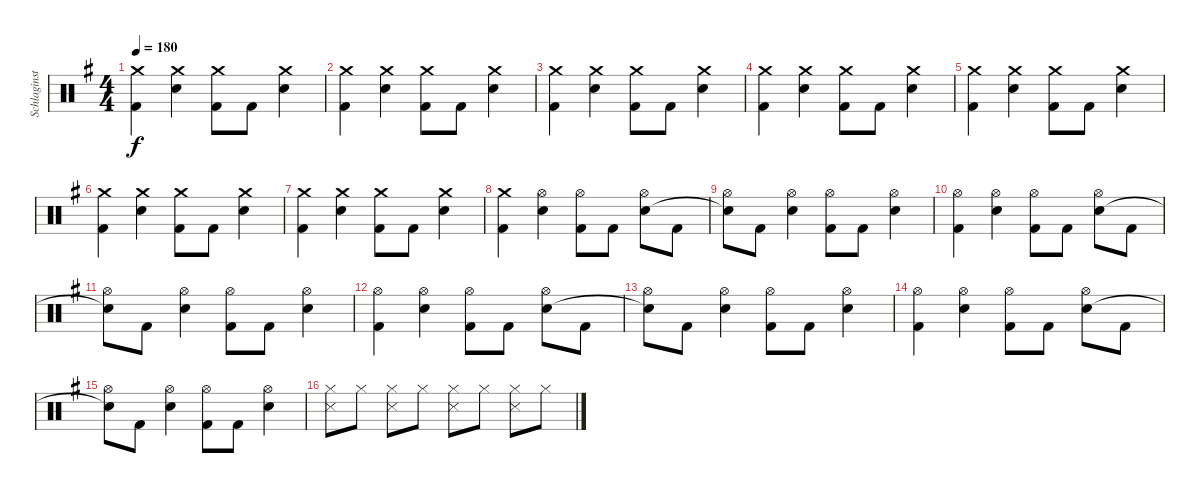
\track ("Schlaginstrumente - Auswahl" "Schlaginst") {instrument percussion}
\staff {score}
\articulation defaults
\ts (4 4)
\tempo 180
\clef neutral
\ks g
("Crash medium (hit)" "Kick (hit) 2").4{dy f} ("Crash medium (hit)" "Electric Snare (hit)").4 ("Crash medium (hit)" "Kick (hit) 2").8 "Kick (hit) 2".8 ("Crash medium (hit)" "Electric Snare (hit)").4 |
("Crash medium (hit)" "Kick (hit) 2").4 ("Crash medium (hit)" "Electric Snare (hit)").4 ("Crash medium (hit)" "Kick (hit) 2").8 "Kick (hit) 2".8 ("Crash medium (hit)" "Electric Snare (hit)").4 |
("Crash medium (hit)" "Kick (hit) 2").4 ("Crash medium (hit)" "Electric Snare (hit)").4 ("Crash medium (hit)" "Kick (hit) 2").8 "Kick (hit) 2".8 ("Crash medium (hit)" "Electric Snare (hit)").4 |
("Crash medium (hit)" "Kick (hit) 2").4 ("Crash medium (hit)" "Electric Snare (hit)").4 ("Crash medium (hit)" "Kick (hit) 2").8 "Kick (hit) 2".8 ("Crash medium (hit)" "Electric Snare (hit)").4 |
("Crash medium (hit)" "Kick (hit) 2").4 ("Crash medium (hit)" "Electric Snare (hit)").4 ("Crash medium (hit)" "Kick (hit) 2").8 "Kick (hit) 2".8 ("Crash medium (hit)" "Electric Snare (hit)").4 |
("Crash medium (hit)" "Kick (hit) 2").4 ("Crash medium (hit)" "Electric Snare (hit)").4 ("Crash medium (hit)" "Kick (hit) 2").8 "Kick (hit) 2".8 ("Crash medium (hit)" "Electric Snare (hit)").4 |
("Crash medium (hit)" "Kick (hit) 2").4 ("Crash medium (hit)" "Electric Snare (hit)").4 ("Crash medium (hit)" "Kick (hit) 2").8 "Kick (hit) 2".8 ("Crash medium (hit)" "Electric Snare (hit)").4 |
("Crash medium (hit)" "Kick (hit) 2").4 ("Hi-Hat (open)" "Electric Snare (hit)").4 ("Hi-Hat (open)" "Kick (hit) 2").8 "Kick (hit) 2".8 ("Hi-Hat (open)" "Electric Snare (hit)").8 "Kick (hit) 2".8 |
("Hi-Hat (open)" "Snare (hit)"{t}).8 "Kick (hit) 2".8 ("Hi-Hat (open)" "Electric Snare (hit)").4 ("Hi-Hat (open)" "Kick (hit) 2").8 "Kick (hit) 2".8 ("Hi-Hat (open)" "Electric Snare (hit)").4 |
("Hi-Hat (open)" "Kick (hit) 2").4 ("Hi-Hat (open)" "Electric Snare (hit)").4 ("Hi-Hat (open)" "Kick (hit) 2").8 "Kick (hit) 2".8 ("Hi-Hat (open)" "Electric Snare (hit)").8 "Kick (hit) 2".8 |
("Hi-Hat (open)" "Snare (hit)"{t}).8 "Kick (hit) 2".8 ("Hi-Hat (open)" "Electric Snare (hit)").4 ("Hi-Hat (open)" "Kick (hit) 2").8 "Kick (hit) 2".8 ("Hi-Hat (open)" "Electric Snare (hit)").4 |
("Hi-Hat (open)" "Kick (hit) 2").4 ("Hi-Hat (open)" "Electric Snare (hit)").4 ("Hi-Hat (open)" "Kick (hit) 2").8 "Kick (hit) 2".8 ("Hi-Hat (open)" "Electric Snare (hit)").8 "Kick (hit) 2".8 |
("Hi-Hat (open)" "Snare (hit)"{t}).8 "Kick (hit) 2".8 ("Hi-Hat (open)" "Electric Snare (hit)").4 ("Hi-Hat (open)" "Kick (hit) 2").8 "Kick (hit) 2".8 ("Hi-Hat (open)" "Electric Snare (hit)").4 |
("Hi-Hat (open)" "Kick (hit) 2").4 ("Hi-Hat (open)" "Electric Snare (hit)").4 ("Hi-Hat (open)" "Kick (hit) 2").8 "Kick (hit) 2".8 ("Hi-Hat (open)" "Electric Snare (hit)").8 "Kick (hit) 2".8 |
("Hi-Hat (open)" "Snare (hit)"{t}).8 "Kick (hit) 2".8 ("Hi-Hat (open)" "Electric Snare (hit)").4 ("Hi-Hat (open)" "Kick (hit) 2").8 "Kick (hit) 2".8 ("Hi-Hat (open)" "Electric Snare (hit)").4 |
("Hi-Hat (closed)" "Snare (side stick) 3").8 "Hi-Hat (closed)".8 ("Hi-Hat (closed)" "Snare (side stick) 3").8 "Hi-Hat (closed)".8 ("Hi-Hat (closed)" "Snare (side stick) 3").8 "Hi-Hat (closed)".8 ("Hi-Hat (closed)" "Snare (side stick) 3").8 "Hi-Hat (closed)".8
